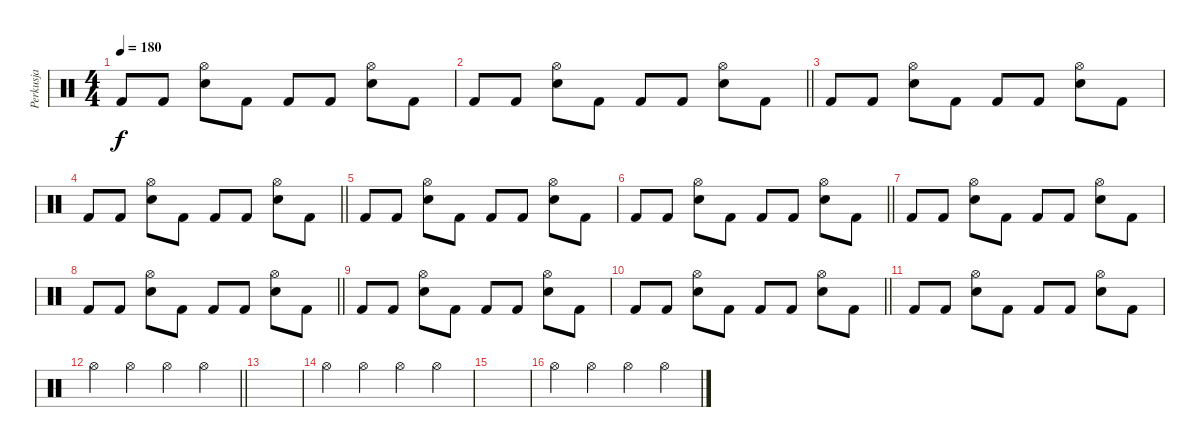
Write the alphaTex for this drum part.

\track ("Perkusja" "Perkusja") {instrument percussion}
\staff {score}
\articulation defaults
\ts (4 4)
\tempo 180
\clef neutral
\ks c "Kick (hit) 2".8{dy f} "Kick (hit) 2".8
("Snare (hit) 2" "Hi-Hat (open)").8 "Kick (hit) 2".8 "Kick (hit) 2".8 "Kick (hit) 2".8 ("Snare (hit) 2" "Hi-Hat (open)").8 "Kick (hit) 2".8 |
\barLineRight lightlight "Kick (hit) 2".8 "Kick (hit) 2".8
("Snare (hit) 2" "Hi-Hat (open)").8 "Kick (hit) 2".8 "Kick (hit) 2".8 "Kick (hit) 2".8 ("Snare (hit) 2" "Hi-Hat (open)").8 "Kick (hit) 2".8 |
"Kick (hit) 2".8 "Kick (hit) 2".8 ("Snare (hit) 2" "Hi-Hat (open)").8 "Kick (hit) 2".8 "Kick (hit) 2".8 "Kick (hit) 2".8 ("Snare (hit) 2" "Hi-Hat (open)").8 "Kick (hit) 2".8 |
\barLineRight lightlight "Kick (hit) 2".8 "Kick (hit) 2".8
("Snare (hit) 2" "Hi-Hat (open)").8 "Kick (hit) 2".8 "Kick (hit) 2".8 "Kick (hit) 2".8 ("Snare (hit) 2" "Hi-Hat (open)").8 "Kick (hit) 2".8 |
"Kick (hit) 2".8 "Kick (hit) 2".8 ("Snare (hit) 2" "Hi-Hat (open)").8 "Kick (hit) 2".8 "Kick (hit) 2".8 "Kick (hit) 2".8 ("Snare (hit) 2" "Hi-Hat (open)").8 "Kick (hit) 2".8 |
\barLineRight lightlight "Kick (hit) 2".8 "Kick (hit) 2".8
("Snare (hit) 2" "Hi-Hat (open)").8 "Kick (hit) 2".8 "Kick (hit) 2".8 "Kick (hit) 2".8 ("Snare (hit) 2" "Hi-Hat (open)").8 "Kick (hit) 2".8 |
"Kick (hit) 2".8 "Kick (hit) 2".8 ("Snare (hit) 2" "Hi-Hat (open)").8 "Kick (hit) 2".8 "Kick (hit) 2".8 "Kick (hit) 2".8 ("Snare (hit) 2" "Hi-Hat (open)").8 "Kick (hit) 2".8 |
\barLineRight lightlight "Kick (hit) 2".8 "Kick (hit) 2".8
("Snare (hit) 2" "Hi-Hat (open)").8 "Kick (hit) 2".8 "Kick (hit) 2".8 "Kick (hit) 2".8 ("Snare (hit) 2" "Hi-Hat (open)").8 "Kick (hit) 2".8 |
"Kick (hit) 2".8 "Kick (hit) 2".8 ("Snare (hit) 2" "Hi-Hat (open)").8 "Kick (hit) 2".8 "Kick (hit) 2".8 "Kick (hit) 2".8 ("Snare (hit) 2" "Hi-Hat (open)").8 "Kick (hit) 2".8 |
\barLineRight lightlight "Kick (hit) 2".8 "Kick (hit) 2".8
("Snare (hit) 2" "Hi-Hat (open)").8 "Kick (hit) 2".8 "Kick (hit) 2".8 "Kick (hit) 2".8 ("Snare (hit) 2" "Hi-Hat (open)").8 "Kick (hit) 2".8 |
"Kick (hit) 2".8 "Kick (hit) 2".8 ("Snare (hit) 2" "Hi-Hat (open)").8 "Kick (hit) 2".8 "Kick (hit) 2".8 "Kick (hit) 2".8 ("Snare (hit) 2" "Hi-Hat (open)").8 "Kick (hit) 2".8 |
\barLineRight lightlight "Hi-Hat (open)".4 "Hi-Hat (open)".4 "Hi-Hat (open)".4 "Hi-Hat (open)".4
|
|
"Hi-Hat (open)".4 "Hi-Hat (open)".4 "Hi-Hat (open)".4 "Hi-Hat (open)".4 |
|
"Hi-Hat (open)".4 "Hi-Hat (open)".4 "Hi-Hat (open)".4 "Hi-Hat (open)".4
